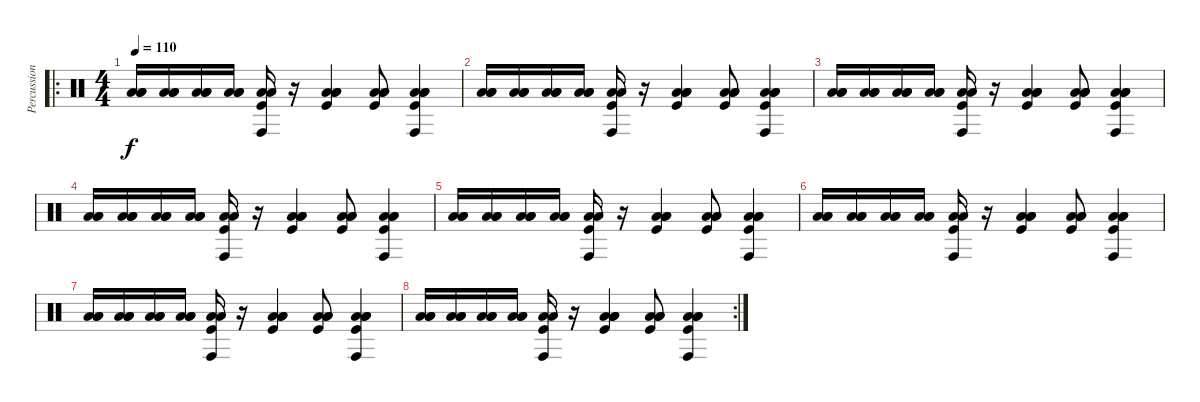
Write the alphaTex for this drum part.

\track ("Percussion 1" "Percussion") {instrument percussion}
\staff {score}
\articulation defaults
\ro
\ts (4 4)
\tempo 110
\clef neutral
\ks c
("Low Floor Tom (hit)" "Low Floor Tom (hit)" "Low Tom (hit)").16{dy f} ("Low Floor Tom (hit)" "Low Floor Tom (hit)" "Low Tom (hit)").16 ("Low Floor Tom (hit)" "Low Floor Tom (hit)" "Low Tom (hit)").16 ("Low Floor Tom (hit)" "Low Floor Tom (hit)" "Low Tom (hit)").16 ("Low Floor Tom (hit)" "Low Floor Tom (hit)" "Conga high (hit)" "Kick (hit)").16 r.16 ("Low Floor Tom (hit)" "Low Floor Tom (hit)" "Low Tom (hit)" "Kick (hit)").4 ("Low Floor Tom (hit)" "Low Tom (hit)" "Low Floor Tom (hit)" "Kick (hit)").8 ("Low Floor Tom (hit)" "Low Tom (hit)" "Low Floor Tom (hit)" "Conga high (hit)" "Kick (hit)").4 |
("Low Floor Tom (hit)" "Low Floor Tom (hit)" "Low Tom (hit)").16 ("Low Floor Tom (hit)" "Low Floor Tom (hit)" "Low Tom (hit)").16 ("Low Floor Tom (hit)" "Low Floor Tom (hit)" "Low Tom (hit)").16 ("Low Floor Tom (hit)" "Low Floor Tom (hit)" "Low Tom (hit)").16 ("Low Floor Tom (hit)" "Low Floor Tom (hit)" "Conga high (hit)" "Kick (hit)").16 r.16 ("Low Floor Tom (hit)" "Low Floor Tom (hit)" "Low Tom (hit)" "Kick (hit)").4 ("Low Floor Tom (hit)" "Low Tom (hit)" "Low Floor Tom (hit)" "Kick (hit)").8 ("Low Floor Tom (hit)" "Low Tom (hit)" "Low Floor Tom (hit)" "Conga high (hit)" "Kick (hit)").4 |
("Low Floor Tom (hit)" "Low Floor Tom (hit)" "Low Tom (hit)").16 ("Low Floor Tom (hit)" "Low Floor Tom (hit)" "Low Tom (hit)").16 ("Low Floor Tom (hit)" "Low Floor Tom (hit)" "Low Tom (hit)").16 ("Low Floor Tom (hit)" "Low Floor Tom (hit)" "Low Tom (hit)").16 ("Low Floor Tom (hit)" "Low Floor Tom (hit)" "Conga high (hit)" "Kick (hit)").16 r.16 ("Low Floor Tom (hit)" "Low Floor Tom (hit)" "Low Tom (hit)" "Kick (hit)").4 ("Low Floor Tom (hit)" "Low Tom (hit)" "Low Floor Tom (hit)" "Kick (hit)").8 ("Low Floor Tom (hit)" "Low Tom (hit)" "Low Floor Tom (hit)" "Conga high (hit)" "Kick (hit)").4 |
("Low Floor Tom (hit)" "Low Floor Tom (hit)" "Low Tom (hit)").16 ("Low Floor Tom (hit)" "Low Floor Tom (hit)" "Low Tom (hit)").16 ("Low Floor Tom (hit)" "Low Floor Tom (hit)" "Low Tom (hit)").16 ("Low Floor Tom (hit)" "Low Floor Tom (hit)" "Low Tom (hit)").16 ("Low Floor Tom (hit)" "Low Floor Tom (hit)" "Conga high (hit)" "Kick (hit)").16 r.16 ("Low Floor Tom (hit)" "Low Floor Tom (hit)" "Low Tom (hit)" "Kick (hit)").4 ("Low Floor Tom (hit)" "Low Tom (hit)" "Low Floor Tom (hit)" "Kick (hit)").8 ("Low Floor Tom (hit)" "Low Tom (hit)" "Low Floor Tom (hit)" "Conga high (hit)" "Kick (hit)").4 |
("Low Floor Tom (hit)" "Low Floor Tom (hit)" "Low Tom (hit)").16 ("Low Floor Tom (hit)" "Low Floor Tom (hit)" "Low Tom (hit)").16 ("Low Floor Tom (hit)" "Low Floor Tom (hit)" "Low Tom (hit)").16 ("Low Floor Tom (hit)" "Low Floor Tom (hit)" "Low Tom (hit)").16 ("Low Floor Tom (hit)" "Low Floor Tom (hit)" "Conga high (hit)" "Kick (hit)").16 r.16 ("Low Floor Tom (hit)" "Low Floor Tom (hit)" "Low Tom (hit)" "Kick (hit)").4 ("Low Floor Tom (hit)" "Low Tom (hit)" "Low Floor Tom (hit)" "Kick (hit)").8 ("Low Floor Tom (hit)" "Low Tom (hit)" "Low Floor Tom (hit)" "Conga high (hit)" "Kick (hit)").4 |
("Low Floor Tom (hit)" "Low Floor Tom (hit)" "Low Tom (hit)").16 ("Low Floor Tom (hit)" "Low Floor Tom (hit)" "Low Tom (hit)").16 ("Low Floor Tom (hit)" "Low Floor Tom (hit)" "Low Tom (hit)").16 ("Low Floor Tom (hit)" "Low Floor Tom (hit)" "Low Tom (hit)").16 ("Low Floor Tom (hit)" "Low Floor Tom (hit)" "Conga high (hit)" "Kick (hit)").16 r.16 ("Low Floor Tom (hit)" "Low Floor Tom (hit)" "Low Tom (hit)" "Kick (hit)").4 ("Low Floor Tom (hit)" "Low Tom (hit)" "Low Floor Tom (hit)" "Kick (hit)").8 ("Low Floor Tom (hit)" "Low Tom (hit)" "Low Floor Tom (hit)" "Conga high (hit)" "Kick (hit)").4 |
("Low Floor Tom (hit)" "Low Floor Tom (hit)" "Low Tom (hit)").16 ("Low Floor Tom (hit)" "Low Floor Tom (hit)" "Low Tom (hit)").16 ("Low Floor Tom (hit)" "Low Floor Tom (hit)" "Low Tom (hit)").16 ("Low Floor Tom (hit)" "Low Floor Tom (hit)" "Low Tom (hit)").16 ("Low Floor Tom (hit)" "Low Floor Tom (hit)" "Conga high (hit)" "Kick (hit)").16 r.16 ("Low Floor Tom (hit)" "Low Floor Tom (hit)" "Low Tom (hit)" "Kick (hit)").4 ("Low Floor Tom (hit)" "Low Tom (hit)" "Low Floor Tom (hit)" "Kick (hit)").8 ("Low Floor Tom (hit)" "Low Tom (hit)" "Low Floor Tom (hit)" "Conga high (hit)" "Kick (hit)").4 |
\rc 2
("Low Floor Tom (hit)" "Low Floor Tom (hit)" "Low Tom (hit)").16 ("Low Floor Tom (hit)" "Low Floor Tom (hit)" "Low Tom (hit)").16 ("Low Floor Tom (hit)" "Low Floor Tom (hit)" "Low Tom (hit)").16 ("Low Floor Tom (hit)" "Low Floor Tom (hit)" "Low Tom (hit)").16 ("Low Floor Tom (hit)" "Low Floor Tom (hit)" "Conga high (hit)" "Kick (hit)").16 r.16 ("Low Floor Tom (hit)" "Low Floor Tom (hit)" "Low Tom (hit)" "Kick (hit)").4 ("Low Floor Tom (hit)" "Low Tom (hit)" "Low Floor Tom (hit)" "Kick (hit)").8 ("Low Floor Tom (hit)" "Low Tom (hit)" "Low Floor Tom (hit)" "Conga high (hit)" "Kick (hit)").4
